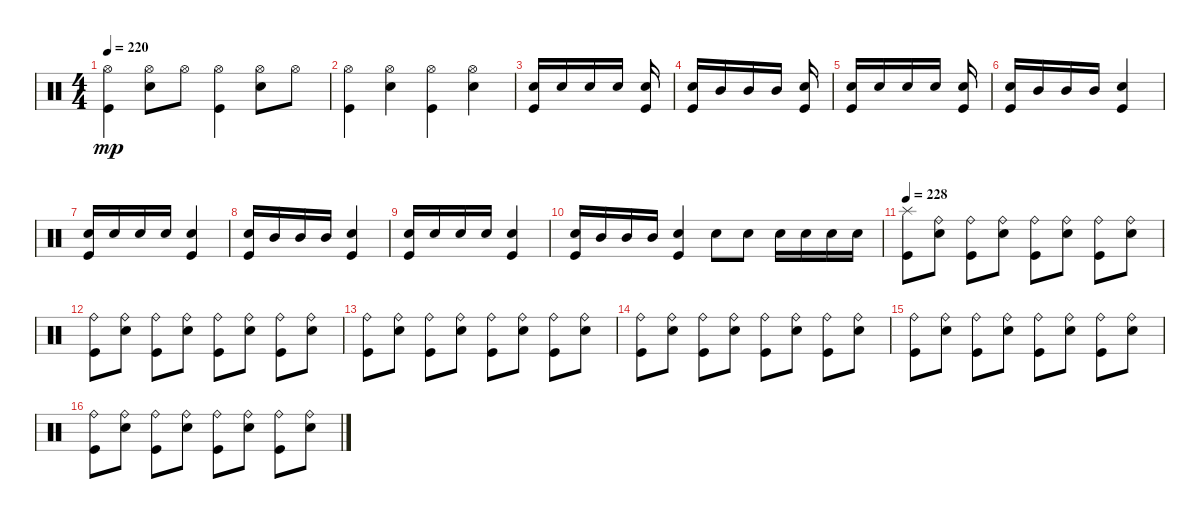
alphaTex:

\track "" {instrument percussion}
\staff {score}
\articulation defaults
\ts (4 4)
\tempo 220
\clef neutral
\ks c
("Kick (hit)" "Hi-Hat (open)").4{dy mp} ("Electric Snare (hit)" "Hi-Hat (open)").8 "Hi-Hat (open)".8 ("Kick (hit)" "Hi-Hat (open)").4 ("Electric Snare (hit)" "Hi-Hat (open)").8 "Hi-Hat (open)".8 |
("Kick (hit)" "Hi-Hat (open)").4 ("Electric Snare (hit)" "Hi-Hat (open)").4 ("Kick (hit)" "Hi-Hat (open)").4 ("Electric Snare (hit)" "Hi-Hat (open)").4 |
("Kick (hit)" "Electric Snare (hit)").16 "Electric Snare (hit)".16 "Electric Snare (hit)".16 "Electric Snare (hit)".16 ("Kick (hit)" "Electric Snare (hit)").16 |
("Kick (hit)" "Electric Snare (hit)").16 "Mid Tom (hit)".16 "Mid Tom (hit)".16 "Mid Tom (hit)".16 ("Kick (hit)" "Electric Snare (hit)").16 |
("Kick (hit)" "Electric Snare (hit)").16 "Electric Snare (hit)".16 "Electric Snare (hit)".16 "Electric Snare (hit)".16 ("Kick (hit)" "Electric Snare (hit)").16 |
("Kick (hit)" "Electric Snare (hit)").16 "Mid Tom (hit)".16 "Mid Tom (hit)".16 "Mid Tom (hit)".16 ("Kick (hit)" "Electric Snare (hit)").4 |
("Kick (hit)" "Electric Snare (hit)").16 "Electric Snare (hit)".16 "Electric Snare (hit)".16 "Electric Snare (hit)".16 ("Kick (hit)" "Electric Snare (hit)").4 |
("Kick (hit)" "Electric Snare (hit)").16 "Mid Tom (hit)".16 "Mid Tom (hit)".16 "Mid Tom (hit)".16 ("Kick (hit)" "Electric Snare (hit)").4 |
("Kick (hit)" "Electric Snare (hit)").16 "Electric Snare (hit)".16 "Electric Snare (hit)".16 "Electric Snare (hit)".16 ("Kick (hit)" "Electric Snare (hit)").4 |
("Kick (hit)" "Electric Snare (hit)").16 "Mid Tom (hit)".16 "Mid Tom (hit)".16 "Mid Tom (hit)".16 ("Kick (hit)" "Electric Snare (hit)").4 "Electric Snare (hit)".8 "Electric Snare (hit)".8 "Electric Snare (hit)".16 "Electric Snare (hit)".16 "Electric Snare (hit)".16 "Electric Snare (hit)".16 |
\tempo 228
("Kick (hit)" "Splash (hit)").8 ("Electric Snare (hit)" "Ride (bell)").8 ("Kick (hit)" "Ride (bell)").8 ("Electric Snare (hit)" "Ride (bell)").8 ("Kick (hit)" "Ride (bell)").8 ("Electric Snare (hit)" "Ride (bell)").8 ("Kick (hit)" "Ride (bell)").8 ("Electric Snare (hit)" "Ride (bell)").8 |
("Kick (hit)" "Ride (bell)").8 ("Electric Snare (hit)" "Ride (bell)").8 ("Kick (hit)" "Ride (bell)").8 ("Electric Snare (hit)" "Ride (bell)").8 ("Kick (hit)" "Ride (bell)").8 ("Electric Snare (hit)" "Ride (bell)").8 ("Kick (hit)" "Ride (bell)").8 ("Electric Snare (hit)" "Ride (bell)").8 |
("Kick (hit)" "Ride (bell)").8 ("Electric Snare (hit)" "Ride (bell)").8 ("Kick (hit)" "Ride (bell)").8 ("Electric Snare (hit)" "Ride (bell)").8 ("Kick (hit)" "Ride (bell)").8 ("Electric Snare (hit)" "Ride (bell)").8 ("Kick (hit)" "Ride (bell)").8 ("Electric Snare (hit)" "Ride (bell)").8 |
("Kick (hit)" "Ride (bell)").8 ("Electric Snare (hit)" "Ride (bell)").8 ("Kick (hit)" "Ride (bell)").8 ("Electric Snare (hit)" "Ride (bell)").8 ("Kick (hit)" "Ride (bell)").8 ("Electric Snare (hit)" "Ride (bell)").8 ("Kick (hit)" "Ride (bell)").8 ("Electric Snare (hit)" "Ride (bell)").8 |
("Kick (hit)" "Ride (bell)").8 ("Electric Snare (hit)" "Ride (bell)").8 ("Kick (hit)" "Ride (bell)").8 ("Electric Snare (hit)" "Ride (bell)").8 ("Kick (hit)" "Ride (bell)").8 ("Electric Snare (hit)" "Ride (bell)").8 ("Kick (hit)" "Ride (bell)").8 ("Electric Snare (hit)" "Ride (bell)").8 |
("Kick (hit)" "Ride (bell)").8 ("Electric Snare (hit)" "Ride (bell)").8 ("Kick (hit)" "Ride (bell)").8 ("Electric Snare (hit)" "Ride (bell)").8 ("Kick (hit)" "Ride (bell)").8 ("Electric Snare (hit)" "Ride (bell)").8 ("Kick (hit)" "Ride (bell)").8 ("Electric Snare (hit)" "Ride (bell)").8
